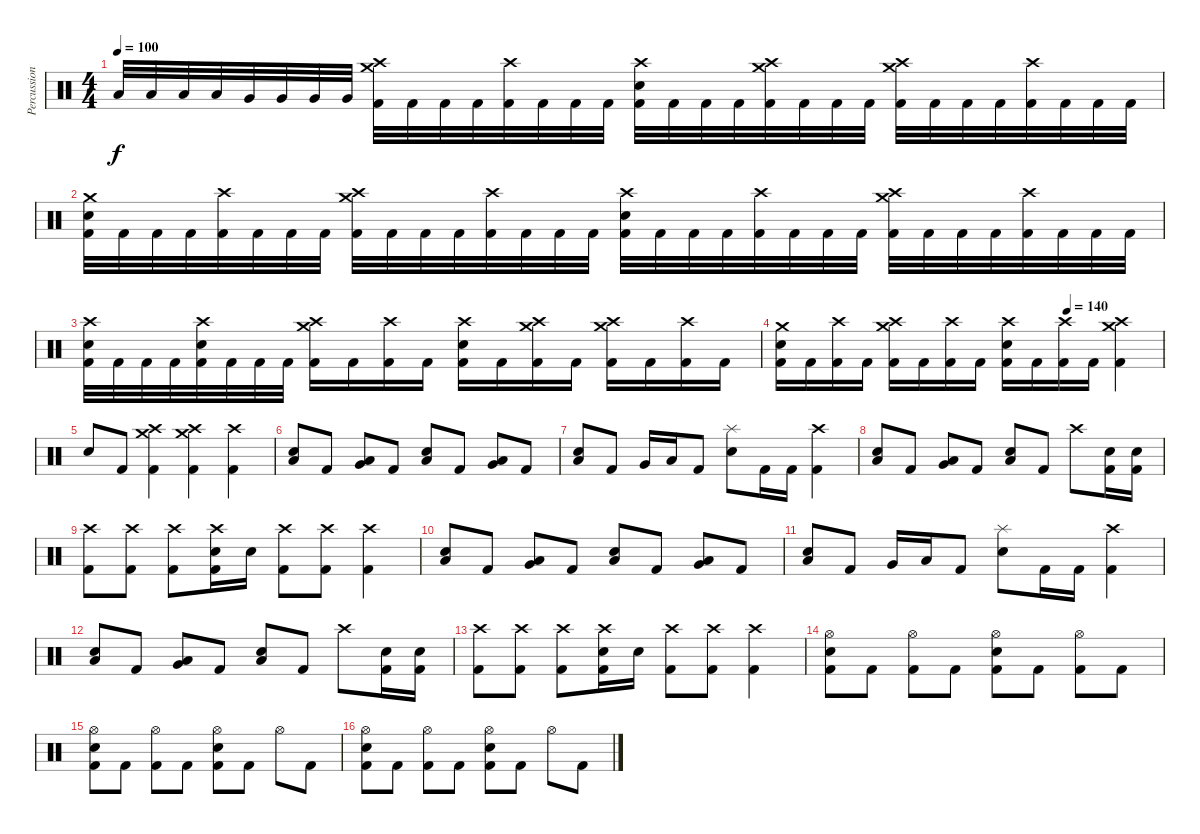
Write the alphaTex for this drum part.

\track ("Percussion" "Percussion") {instrument percussion}
\staff {score}
\articulation defaults
\ts (4 4)
\tempo 100
\clef neutral
\ks c "Low Tom (hit)".32{dy f} "Low Tom (hit)".32 "Low Tom (hit)".32 "Low Tom (hit)".32 "Very Low Tom (hit)".32 "Very Low Tom (hit)".32 "Very Low Tom (hit)".32 "Very Low Tom (hit)".32
("Crash medium (hit)" "Crash high (hit)" "Kick (hit) 2").32 "Kick (hit) 2".32 "Kick (hit) 2".32 "Kick (hit) 2".32 ("Crash high (hit)" "Kick (hit) 2").32 "Kick (hit) 2".32 "Kick (hit) 2".32 "Kick (hit) 2".32 ("Crash high (hit)" "Electric Snare (hit)" "Kick (hit) 2").32 "Kick (hit) 2".32 "Kick (hit) 2".32 "Kick (hit) 2".32 ("Crash medium (hit)" "Crash high (hit)" "Kick (hit) 2").32 "Kick (hit) 2".32 "Kick (hit) 2".32 "Kick (hit) 2".32 ("Crash medium (hit)" "Crash high (hit)" "Kick (hit) 2").32 "Kick (hit) 2".32 "Kick (hit) 2".32 "Kick (hit) 2".32 ("Crash high (hit)" "Kick (hit) 2").32 "Kick (hit) 2".32 "Kick (hit) 2".32 "Kick (hit) 2".32 |
("Crash medium (hit)" "Electric Snare (hit)" "Kick (hit) 2").32 "Kick (hit) 2".32 "Kick (hit) 2".32 "Kick (hit) 2".32 ("Crash high (hit)" "Kick (hit) 2").32 "Kick (hit) 2".32 "Kick (hit) 2".32 "Kick (hit) 2".32 ("Crash medium (hit)" "Crash high (hit)" "Kick (hit) 2").32 "Kick (hit) 2".32 "Kick (hit) 2".32 "Kick (hit) 2".32 ("Crash high (hit)" "Kick (hit) 2").32 "Kick (hit) 2".32 "Kick (hit) 2".32 "Kick (hit) 2".32 ("Crash high (hit)" "Electric Snare (hit)" "Kick (hit) 2").32 "Kick (hit) 2".32 "Kick (hit) 2".32 "Kick (hit) 2".32 ("Crash high (hit)" "Kick (hit) 2").32 "Kick (hit) 2".32 "Kick (hit) 2".32 "Kick (hit) 2".32 ("Crash medium (hit)" "Crash high (hit)" "Kick (hit) 2").32 "Kick (hit) 2".32 "Kick (hit) 2".32 "Kick (hit) 2".32 ("Crash high (hit)" "Kick (hit) 2").32 "Kick (hit) 2".32 "Kick (hit) 2".32 "Kick (hit) 2".32 |
("Crash high (hit)" "Electric Snare (hit)" "Kick (hit) 2").32 "Kick (hit) 2".32 "Kick (hit) 2".32 "Kick (hit) 2".32 ("Crash high (hit)" "Electric Snare (hit)" "Kick (hit) 2").32 "Kick (hit) 2".32 "Kick (hit) 2".32 "Kick (hit) 2".32 ("Crash medium (hit)" "Crash high (hit)" "Kick (hit) 2").16 "Kick (hit) 2".16 ("Crash high (hit)" "Kick (hit) 2").16 "Kick (hit) 2".16 ("Crash high (hit)" "Electric Snare (hit)" "Kick (hit) 2").16 "Kick (hit) 2".16 ("Crash medium (hit)" "Crash high (hit)" "Kick (hit) 2").16 "Kick (hit) 2".16 ("Crash medium (hit)" "Crash high (hit)" "Kick (hit) 2").16 "Kick (hit) 2".16 ("Crash high (hit)" "Kick (hit) 2").16 "Kick (hit) 2".16 |
\tempo (140 0.75)
("Crash medium (hit)" "Electric Snare (hit)" "Kick (hit) 2").16 "Kick (hit) 2".16 ("Crash high (hit)" "Kick (hit) 2").16 "Kick (hit) 2".16 ("Crash medium (hit)" "Crash high (hit)" "Kick (hit) 2").16 "Kick (hit) 2".16 ("Crash high (hit)" "Kick (hit) 2").16 "Kick (hit) 2".16 ("Crash high (hit)" "Electric Snare (hit)" "Kick (hit) 2").16 "Kick (hit) 2".16 ("Crash high (hit)" "Kick (hit) 2").16 "Kick (hit) 2".16 ("Crash medium (hit)" "Crash high (hit)" "Kick (hit) 2").4 |
"Electric Snare (hit)".8 "Kick (hit) 2".8 ("Crash medium (hit)" "Crash high (hit)" "Kick (hit) 2").4 ("Crash medium (hit)" "Crash high (hit)" "Kick (hit) 2").4 ("Crash high (hit)" "Kick (hit) 2").4 |
("Low Floor Tom (hit)" "Electric Snare (hit)").8 "Kick (hit) 2".8 ("Very Low Tom (hit)" "Low Tom (hit)").8 "Kick (hit) 2".8 ("Low Floor Tom (hit)" "Electric Snare (hit)").8 "Kick (hit) 2".8 ("Very Low Tom (hit)" "Low Tom (hit)").8 "Kick (hit) 2".8 |
("Low Floor Tom (hit)" "Electric Snare (hit)").8 "Kick (hit) 2".8 "Very Low Tom (hit)".16 "Low Tom (hit)".16 "Kick (hit) 2".8 ("Splash (hit)" "Electric Snare (hit)").8 "Kick (hit) 2".16 "Kick (hit) 2".16 ("Crash high (hit)" "Kick (hit) 2").4 |
("Low Floor Tom (hit)" "Electric Snare (hit)").8 "Kick (hit) 2".8 ("Very Low Tom (hit)" "Low Tom (hit)").8 "Kick (hit) 2".8 ("Low Floor Tom (hit)" "Electric Snare (hit)").8 "Kick (hit) 2".8 "Crash high (hit)".8 ("Electric Snare (hit)" "Kick (hit) 2").16 ("Electric Snare (hit)" "Kick (hit) 2").16 |
("Crash high (hit)" "Kick (hit) 2").8 ("Crash high (hit)" "Kick (hit) 2").8 ("Crash high (hit)" "Kick (hit) 2").8 ("Crash high (hit)" "Electric Snare (hit)" "Kick (hit) 2").16 "Electric Snare (hit)".16 ("Crash high (hit)" "Kick (hit) 2").8 ("Crash high (hit)" "Kick (hit) 2").8 ("Crash high (hit)" "Kick (hit) 2").4 |
("Low Floor Tom (hit)" "Electric Snare (hit)").8 "Kick (hit) 2".8 ("Very Low Tom (hit)" "Low Tom (hit)").8 "Kick (hit) 2".8 ("Low Floor Tom (hit)" "Electric Snare (hit)").8 "Kick (hit) 2".8 ("Very Low Tom (hit)" "Low Tom (hit)").8 "Kick (hit) 2".8 |
("Low Floor Tom (hit)" "Electric Snare (hit)").8 "Kick (hit) 2".8 "Very Low Tom (hit)".16 "Low Tom (hit)".16 "Kick (hit) 2".8 ("Splash (hit)" "Electric Snare (hit)").8 "Kick (hit) 2".16 "Kick (hit) 2".16 ("Crash high (hit)" "Kick (hit) 2").4 |
("Low Floor Tom (hit)" "Electric Snare (hit)").8 "Kick (hit) 2".8 ("Very Low Tom (hit)" "Low Tom (hit)").8 "Kick (hit) 2".8 ("Low Floor Tom (hit)" "Electric Snare (hit)").8 "Kick (hit) 2".8 "Crash high (hit)".8 ("Electric Snare (hit)" "Kick (hit) 2").16 ("Electric Snare (hit)" "Kick (hit) 2").16 |
("Crash high (hit)" "Kick (hit) 2").8 ("Crash high (hit)" "Kick (hit) 2").8 ("Crash high (hit)" "Kick (hit) 2").8 ("Crash high (hit)" "Electric Snare (hit)" "Kick (hit) 2").16 "Electric Snare (hit)".16 ("Crash high (hit)" "Kick (hit) 2").8 ("Crash high (hit)" "Kick (hit) 2").8 ("Crash high (hit)" "Kick (hit) 2").4 |
("Hi-Hat (open)" "Electric Snare (hit)" "Kick (hit) 2").8 "Kick (hit) 2".8 ("Hi-Hat (open)" "Kick (hit) 2").8 "Kick (hit) 2".8 ("Hi-Hat (open)" "Electric Snare (hit)" "Kick (hit) 2").8 "Kick (hit) 2".8 ("Hi-Hat (open)" "Kick (hit) 2").8 "Kick (hit) 2".8 |
("Hi-Hat (open)" "Electric Snare (hit)" "Kick (hit) 2").8 "Kick (hit) 2".8 ("Hi-Hat (open)" "Kick (hit) 2").8 "Kick (hit) 2".8 ("Hi-Hat (open)" "Electric Snare (hit)" "Kick (hit) 2").8 "Kick (hit) 2".8 "Hi-Hat (open)".8 "Kick (hit) 2".8 |
("Hi-Hat (open)" "Electric Snare (hit)" "Kick (hit) 2").8 "Kick (hit) 2".8 ("Hi-Hat (open)" "Kick (hit) 2").8 "Kick (hit) 2".8 ("Hi-Hat (open)" "Electric Snare (hit)" "Kick (hit) 2").8 "Kick (hit) 2".8 "Hi-Hat (open)".8 "Kick (hit) 2".8
